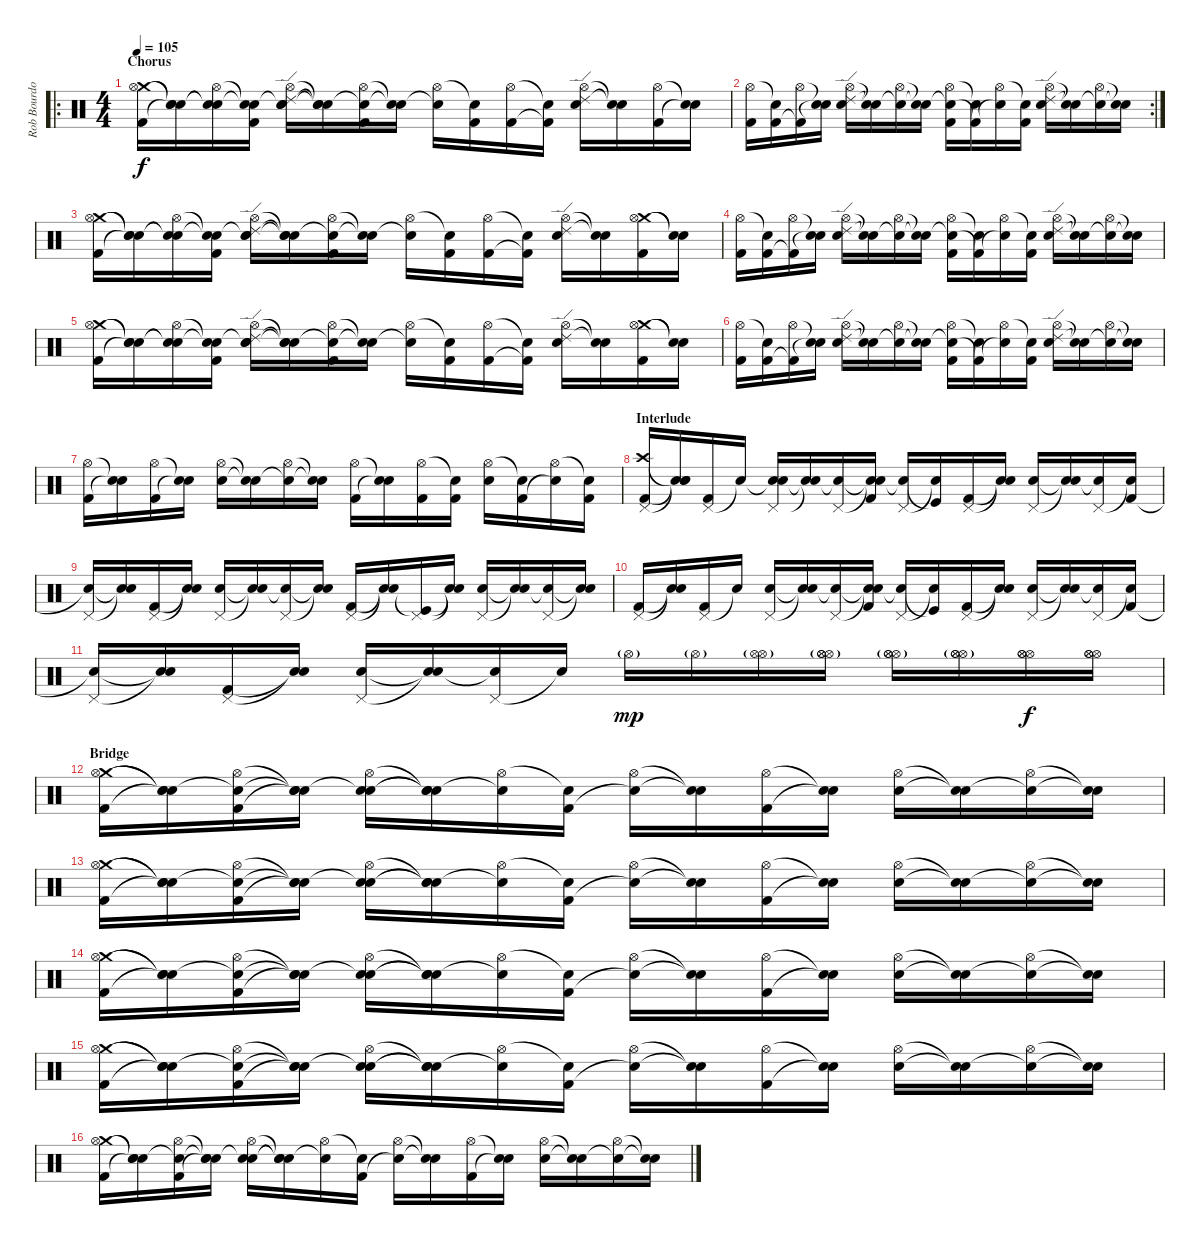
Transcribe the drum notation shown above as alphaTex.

\track ("Rob Bourdon" "Rob Bourdo") {instrument percussion}
\staff {score}
\articulation defaults
\ro
\ts (4 4)
\section ("" "Chorus")
\tempo 105
\clef neutral
\ks c
("Crash medium (hit)" "Hi-Hat (open)" "Kick (hit) 2").16{dy f} ("Snare (hit)"{t} "Snare (hit)"{t} "Snare (hit)"{t}).16 ("Snare (hit)"{t} "Hi-Hat (open)" "Snare (hit)"{t}).16 ("Snare (hit)"{t} "Snare (hit)"{t} "Kick (hit) 2").16 ("Snare (hit)"{t} "Hi-Hat (open)" "Ride (edge) 2" "Electric Snare (hit)").16 ("Snare (hit)"{t} "Snare (hit)"{t} "Snare (hit)"{t}).16 ("Snare (hit)"{t} "Hi-Hat (open)" "Kick (hit) 2").16 ("Snare (hit)"{t} "Snare (hit)"{t}).16 ("Hi-Hat (open)" "Snare (hit)"{t}).16 ("Snare (hit)"{t} "Kick (hit) 2").16 ("Hi-Hat (open)" "Kick (hit) 2").16 ("Snare (hit)"{t} "Kick (hit) 2"{t}).16 ("Hi-Hat (open)" "Ride (edge) 2" "Electric Snare (hit)").16 ("Snare (hit)"{t} "Snare (hit)"{t}).16 ("Hi-Hat (open)" "Kick (hit) 2").16 ("Snare (hit)"{t} "Snare (hit)"{t}).16 |
\rc 2
("Hi-Hat (open)" "Kick (hit) 2").16 ("Snare (hit)"{t} "Kick (hit) 2").16 ("Hi-Hat (open)" "Kick (hit) 2"{t}).16 ("Snare (hit)"{t} "Snare (hit)"{t}).16 ("Hi-Hat (open)" "Ride (edge) 2" "Electric Snare (hit)").16 ("Snare (hit)"{t} "Snare (hit)"{t}).16 ("Hi-Hat (open)" "Snare (hit)"{t}).16 ("Snare (hit)"{t} "Snare (hit)"{t}).16 ("Hi-Hat (open)" "Snare (hit)"{t} "Kick (hit) 2").16 ("Snare (hit)"{t} "Kick (hit) 2"{t}).16 ("Hi-Hat (open)" "Snare (hit)"{t}).16 ("Snare (hit)"{t} "Kick (hit) 2").16 ("Hi-Hat (open)" "Ride (edge) 2" "Electric Snare (hit)").16 ("Snare (hit)"{t} "Snare (hit)"{t}).16 ("Hi-Hat (open)" "Snare (hit)"{t}).16 ("Snare (hit)"{t} "Snare (hit)"{t}).16 |
("Crash medium (hit)" "Hi-Hat (open)" "Kick (hit) 2").16 ("Snare (hit)"{t} "Snare (hit)"{t} "Snare (hit)"{t}).16 ("Snare (hit)"{t} "Hi-Hat (open)" "Snare (hit)"{t}).16 ("Snare (hit)"{t} "Snare (hit)"{t} "Kick (hit) 2").16 ("Snare (hit)"{t} "Hi-Hat (open)" "Ride (edge) 2" "Electric Snare (hit)").16 ("Snare (hit)"{t} "Snare (hit)"{t} "Snare (hit)"{t}).16 ("Snare (hit)"{t} "Hi-Hat (open)" "Kick (hit) 2").16 ("Snare (hit)"{t} "Snare (hit)"{t}).16 ("Hi-Hat (open)" "Snare (hit)"{t}).16 ("Snare (hit)"{t} "Kick (hit) 2").16 ("Hi-Hat (open)" "Kick (hit) 2").16 ("Snare (hit)"{t} "Kick (hit) 2"{t}).16 ("Hi-Hat (open)" "Ride (edge) 2" "Electric Snare (hit)").16 ("Snare (hit)"{t} "Snare (hit)"{t}).16 ("Crash medium (hit)" "Hi-Hat (open)" "Kick (hit) 2").16 ("Snare (hit)"{t} "Snare (hit)"{t}).16 |
("Hi-Hat (open)" "Kick (hit) 2").16 ("Snare (hit)"{t} "Kick (hit) 2").16 ("Hi-Hat (open)" "Kick (hit) 2"{t}).16 ("Snare (hit)"{t} "Snare (hit)"{t}).16 ("Hi-Hat (open)" "Ride (edge) 2" "Electric Snare (hit)").16 ("Snare (hit)"{t} "Snare (hit)"{t}).16 ("Hi-Hat (open)" "Snare (hit)"{t}).16 ("Snare (hit)"{t} "Snare (hit)"{t}).16 ("Hi-Hat (open)" "Snare (hit)"{t} "Kick (hit) 2").16 ("Snare (hit)"{t} "Kick (hit) 2"{t}).16 ("Hi-Hat (open)" "Snare (hit)"{t}).16 ("Snare (hit)"{t} "Kick (hit) 2").16 ("Hi-Hat (open)" "Ride (edge) 2" "Electric Snare (hit)").16 ("Snare (hit)"{t} "Snare (hit)"{t}).16 ("Hi-Hat (open)" "Snare (hit)"{t}).16 ("Snare (hit)"{t} "Snare (hit)"{t}).16 |
("Crash medium (hit)" "Hi-Hat (open)" "Kick (hit) 2").16 ("Snare (hit)"{t} "Snare (hit)"{t} "Snare (hit)"{t}).16 ("Snare (hit)"{t} "Hi-Hat (open)" "Snare (hit)"{t}).16 ("Snare (hit)"{t} "Snare (hit)"{t} "Kick (hit) 2").16 ("Snare (hit)"{t} "Hi-Hat (open)" "Ride (edge) 2" "Electric Snare (hit)").16 ("Snare (hit)"{t} "Snare (hit)"{t} "Snare (hit)"{t}).16 ("Snare (hit)"{t} "Hi-Hat (open)" "Kick (hit) 2").16 ("Snare (hit)"{t} "Snare (hit)"{t}).16 ("Hi-Hat (open)" "Snare (hit)"{t}).16 ("Snare (hit)"{t} "Kick (hit) 2").16 ("Hi-Hat (open)" "Kick (hit) 2").16 ("Snare (hit)"{t} "Kick (hit) 2"{t}).16 ("Hi-Hat (open)" "Ride (edge) 2" "Electric Snare (hit)").16 ("Snare (hit)"{t} "Snare (hit)"{t}).16 ("Crash medium (hit)" "Hi-Hat (open)" "Kick (hit) 2").16 ("Snare (hit)"{t} "Snare (hit)"{t}).16 |
("Hi-Hat (open)" "Kick (hit) 2").16 ("Snare (hit)"{t} "Kick (hit) 2").16 ("Hi-Hat (open)" "Kick (hit) 2"{t}).16 ("Snare (hit)"{t} "Snare (hit)"{t}).16 ("Hi-Hat (open)" "Ride (edge) 2" "Electric Snare (hit)").16 ("Snare (hit)"{t} "Snare (hit)"{t}).16 ("Hi-Hat (open)" "Snare (hit)"{t}).16 ("Snare (hit)"{t} "Snare (hit)"{t}).16 ("Hi-Hat (open)" "Snare (hit)"{t} "Kick (hit) 2").16 ("Snare (hit)"{t} "Kick (hit) 2"{t}).16 ("Hi-Hat (open)" "Snare (hit)"{t}).16 ("Snare (hit)"{t} "Kick (hit) 2").16 ("Hi-Hat (open)" "Ride (edge) 2" "Electric Snare (hit)").16 ("Snare (hit)"{t} "Snare (hit)"{t}).16 ("Hi-Hat (open)" "Snare (hit)"{t}).16 ("Snare (hit)"{t} "Snare (hit)"{t}).16 |
("Hi-Hat (open)" "Kick (hit) 2").16 ("Snare (hit)"{t} "Snare (hit)"{t}).16 ("Hi-Hat (open)" "Kick (hit) 2").16 ("Snare (hit)"{t} "Snare (hit)"{t}).16 ("Hi-Hat (open)" "Electric Snare (hit)").16 ("Snare (hit)"{t} "Snare (hit)"{t}).16 ("Hi-Hat (open)" "Snare (hit)"{t}).16 ("Snare (hit)"{t} "Snare (hit)"{t}).16 ("Hi-Hat (open)" "Kick (hit) 2").16 ("Snare (hit)"{t} "Snare (hit)"{t}).16 ("Hi-Hat (open)" "Kick (hit) 2").16 ("Snare (hit)"{t} "Kick (hit) 2").16 ("Hi-Hat (open)" "Electric Snare (hit)").16 ("Snare (hit)"{t} "Kick (hit) 2").16 ("Hi-Hat (open)" "Snare (hit)"{t}).16 ("Snare (hit)"{t} "Kick (hit) 2").16 |
\section ("" "Interlude")
("Crash high (hit)" "Pedal Hi-Hat (hit)" "Kick (hit) 2").16{volume 8} ("Snare (hit)"{t} "Snare (hit)"{t} "Snare (hit)"{t}).16 ("Pedal Hi-Hat (hit)" "Kick (hit) 2").16 "Snare (hit)"{t}.16 ("Snare (hit)"{t} "Pedal Hi-Hat (hit)" "Electric Snare (hit)").16 ("Snare (hit)"{t} "Snare (hit)"{t}).16 ("Pedal Hi-Hat (hit)" "Snare (hit)"{t}).16 ("Snare (hit)"{t} "Snare (hit)"{t} "Kick (hit) 2").16 ("Pedal Hi-Hat (hit)" "Snare (hit)"{t}).16 ("Snare (hit)"{t} "Kick (hit)"{t}).16 ("Pedal Hi-Hat (hit)" "Kick (hit) 2").16 ("Snare (hit)"{t} "Snare (hit)"{t}).16 ("Pedal Hi-Hat (hit)" "Electric Snare (hit)").16 ("Snare (hit)"{t} "Snare (hit)"{t}).16 ("Pedal Hi-Hat (hit)" "Snare (hit)"{t}).16 ("Snare (hit)"{t} "Kick (hit) 2").16 |
("Pedal Hi-Hat (hit)" "Snare (hit)"{t}).16 ("Snare (hit)"{t} "Snare (hit)"{t}).16 ("Pedal Hi-Hat (hit)" "Kick (hit) 2").16 ("Snare (hit)"{t} "Snare (hit)"{t}).16 ("Pedal Hi-Hat (hit)" "Electric Snare (hit)").16 ("Snare (hit)"{t} "Snare (hit)"{t}).16 ("Pedal Hi-Hat (hit)" "Snare (hit)"{t}).16 ("Snare (hit)"{t} "Snare (hit)"{t}).16 ("Pedal Hi-Hat (hit)" "Kick (hit) 2").16 ("Snare (hit)"{t} "Snare (hit)"{t}).16 ("Pedal Hi-Hat (hit)" "Kick (hit)"{t}).16 ("Snare (hit)"{t} "Snare (hit)"{t}).16 ("Pedal Hi-Hat (hit)" "Electric Snare (hit)").16 ("Snare (hit)"{t} "Snare (hit)"{t}).16 ("Pedal Hi-Hat (hit)" "Snare (hit)"{t}).16 ("Snare (hit)"{t} "Snare (hit)"{t}).16 |
("Pedal Hi-Hat (hit)" "Kick (hit) 2").16{volume 8} ("Snare (hit)"{t} "Snare (hit)"{t}).16 ("Pedal Hi-Hat (hit)" "Kick (hit) 2").16 "Snare (hit)"{t}.16 ("Pedal Hi-Hat (hit)" "Electric Snare (hit)").16 ("Snare (hit)"{t} "Snare (hit)"{t}).16 ("Pedal Hi-Hat (hit)" "Snare (hit)"{t}).16 ("Snare (hit)"{t} "Snare (hit)"{t} "Kick (hit) 2").16 ("Pedal Hi-Hat (hit)" "Snare (hit)"{t}).16 ("Snare (hit)"{t} "Kick (hit)"{t}).16 ("Pedal Hi-Hat (hit)" "Kick (hit) 2").16 ("Snare (hit)"{t} "Snare (hit)"{t}).16 ("Pedal Hi-Hat (hit)" "Electric Snare (hit)").16 ("Snare (hit)"{t} "Snare (hit)"{t}).16 ("Pedal Hi-Hat (hit)" "Snare (hit)"{t}).16 ("Snare (hit)"{t} "Kick (hit) 2").16 |
("Pedal Hi-Hat (hit)" "Snare (hit)"{t}).16 ("Snare (hit)"{t} "Snare (hit)"{t}).16 ("Pedal Hi-Hat (hit)" "Kick (hit) 2").16 ("Snare (hit)"{t} "Snare (hit)"{t}).16 ("Pedal Hi-Hat (hit)" "Electric Snare (hit)").16 ("Snare (hit)"{t} "Snare (hit)"{t}).16 ("Pedal Hi-Hat (hit)" "Snare (hit)"{t}).16 "Snare (hit)"{t}.16 "Hi-Hat (open)"{g}.16{dy mp} "Hi-Hat (open)"{g}.16 ("Hi-Hat (open)"{g} "Hi-Hat (open)"{g}).16 ("Hi-Hat (open)" "Hi-Hat (open)"{g} "Hi-Hat (open)"{g}).16 ("Hi-Hat (open)" "Hi-Hat (open)" "Hi-Hat (open)"{g}).16 ("Hi-Hat (open)" "Hi-Hat (open)" "Hi-Hat (open)"{g}).16 ("Hi-Hat (open)" "Hi-Hat (open)" "Hi-Hat (open)").16{dy f} ("Hi-Hat (open)" "Hi-Hat (open)" "Hi-Hat (open)").16 |
\section ("" "Bridge")
("Crash medium (hit)" "Hi-Hat (open)" "Kick (hit) 2").16 ("Snare (hit)"{t} "Snare (hit)"{t} "Snare (hit)"{t}).16 ("Snare (hit)"{t} "Hi-Hat (open)" "Kick (hit) 2").16 ("Snare (hit)"{t} "Snare (hit)"{t} "Snare (hit)"{t}).16 ("Snare (hit)"{t} "Hi-Hat (open)" "Electric Snare (hit)").16 ("Snare (hit)"{t} "Snare (hit)"{t} "Snare (hit)"{t}).16 ("Hi-Hat (open)" "Snare (hit)"{t}).16 ("Snare (hit)"{t} "Kick (hit) 2").16 ("Hi-Hat (open)" "Snare (hit)"{t}).16 ("Snare (hit)"{t} "Snare (hit)"{t}).16 ("Hi-Hat (open)" "Kick (hit) 2").16 ("Snare (hit)"{t} "Snare (hit)"{t}).16 ("Hi-Hat (open)" "Electric Snare (hit)").16 ("Snare (hit)"{t} "Snare (hit)"{t}).16 ("Hi-Hat (open)" "Snare (hit)"{t}).16 ("Snare (hit)"{t} "Snare (hit)"{t}).16 |
("Crash medium (hit)" "Hi-Hat (open)" "Kick (hit) 2").16 ("Snare (hit)"{t} "Snare (hit)"{t} "Snare (hit)"{t}).16 ("Snare (hit)"{t} "Hi-Hat (open)" "Kick (hit) 2").16 ("Snare (hit)"{t} "Snare (hit)"{t} "Snare (hit)"{t}).16 ("Snare (hit)"{t} "Hi-Hat (open)" "Electric Snare (hit)").16 ("Snare (hit)"{t} "Snare (hit)"{t} "Snare (hit)"{t}).16 ("Hi-Hat (open)" "Snare (hit)"{t}).16 ("Snare (hit)"{t} "Kick (hit) 2").16 ("Hi-Hat (open)" "Snare (hit)"{t}).16 ("Snare (hit)"{t} "Snare (hit)"{t}).16 ("Hi-Hat (open)" "Kick (hit) 2").16 ("Snare (hit)"{t} "Snare (hit)"{t}).16 ("Hi-Hat (open)" "Electric Snare (hit)").16 ("Snare (hit)"{t} "Snare (hit)"{t}).16 ("Hi-Hat (open)" "Snare (hit)"{t}).16 ("Snare (hit)"{t} "Snare (hit)"{t}).16 |
("Crash medium (hit)" "Hi-Hat (open)" "Kick (hit) 2").16 ("Snare (hit)"{t} "Snare (hit)"{t} "Snare (hit)"{t}).16 ("Snare (hit)"{t} "Hi-Hat (open)" "Kick (hit) 2").16 ("Snare (hit)"{t} "Snare (hit)"{t} "Snare (hit)"{t}).16 ("Snare (hit)"{t} "Hi-Hat (open)" "Electric Snare (hit)").16 ("Snare (hit)"{t} "Snare (hit)"{t} "Snare (hit)"{t}).16 ("Hi-Hat (open)" "Snare (hit)"{t}).16 ("Snare (hit)"{t} "Kick (hit) 2").16 ("Hi-Hat (open)" "Snare (hit)"{t}).16 ("Snare (hit)"{t} "Snare (hit)"{t}).16 ("Hi-Hat (open)" "Kick (hit) 2").16 ("Snare (hit)"{t} "Snare (hit)"{t}).16 ("Hi-Hat (open)" "Electric Snare (hit)").16 ("Snare (hit)"{t} "Snare (hit)"{t}).16 ("Hi-Hat (open)" "Snare (hit)"{t}).16 ("Snare (hit)"{t} "Snare (hit)"{t}).16 |
("Crash medium (hit)" "Hi-Hat (open)" "Kick (hit) 2").16 ("Snare (hit)"{t} "Snare (hit)"{t} "Snare (hit)"{t}).16 ("Snare (hit)"{t} "Hi-Hat (open)" "Kick (hit) 2").16 ("Snare (hit)"{t} "Snare (hit)"{t} "Snare (hit)"{t}).16 ("Snare (hit)"{t} "Hi-Hat (open)" "Electric Snare (hit)").16 ("Snare (hit)"{t} "Snare (hit)"{t} "Snare (hit)"{t}).16 ("Hi-Hat (open)" "Snare (hit)"{t}).16 ("Snare (hit)"{t} "Kick (hit) 2").16 ("Hi-Hat (open)" "Snare (hit)"{t}).16 ("Snare (hit)"{t} "Snare (hit)"{t}).16 ("Hi-Hat (open)" "Kick (hit) 2").16 ("Snare (hit)"{t} "Snare (hit)"{t}).16 ("Hi-Hat (open)" "Electric Snare (hit)").16 ("Snare (hit)"{t} "Snare (hit)"{t}).16 ("Hi-Hat (open)" "Snare (hit)"{t}).16 ("Snare (hit)"{t} "Snare (hit)"{t}).16 |
("Crash medium (hit)" "Hi-Hat (open)" "Kick (hit) 2").16 ("Snare (hit)"{t} "Snare (hit)"{t} "Snare (hit)"{t}).16 ("Snare (hit)"{t} "Hi-Hat (open)" "Kick (hit) 2").16 ("Snare (hit)"{t} "Snare (hit)"{t} "Snare (hit)"{t}).16 ("Snare (hit)"{t} "Hi-Hat (open)" "Electric Snare (hit)").16 ("Snare (hit)"{t} "Snare (hit)"{t} "Snare (hit)"{t}).16 ("Hi-Hat (open)" "Snare (hit)"{t}).16 ("Snare (hit)"{t} "Kick (hit) 2").16 ("Hi-Hat (open)" "Snare (hit)"{t}).16 ("Snare (hit)"{t} "Snare (hit)"{t}).16 ("Hi-Hat (open)" "Kick (hit) 2").16 ("Snare (hit)"{t} "Snare (hit)"{t}).16 ("Hi-Hat (open)" "Electric Snare (hit)").16 ("Snare (hit)"{t} "Snare (hit)"{t}).16 ("Hi-Hat (open)" "Snare (hit)"{t}).16 ("Snare (hit)"{t} "Snare (hit)"{t}).16
